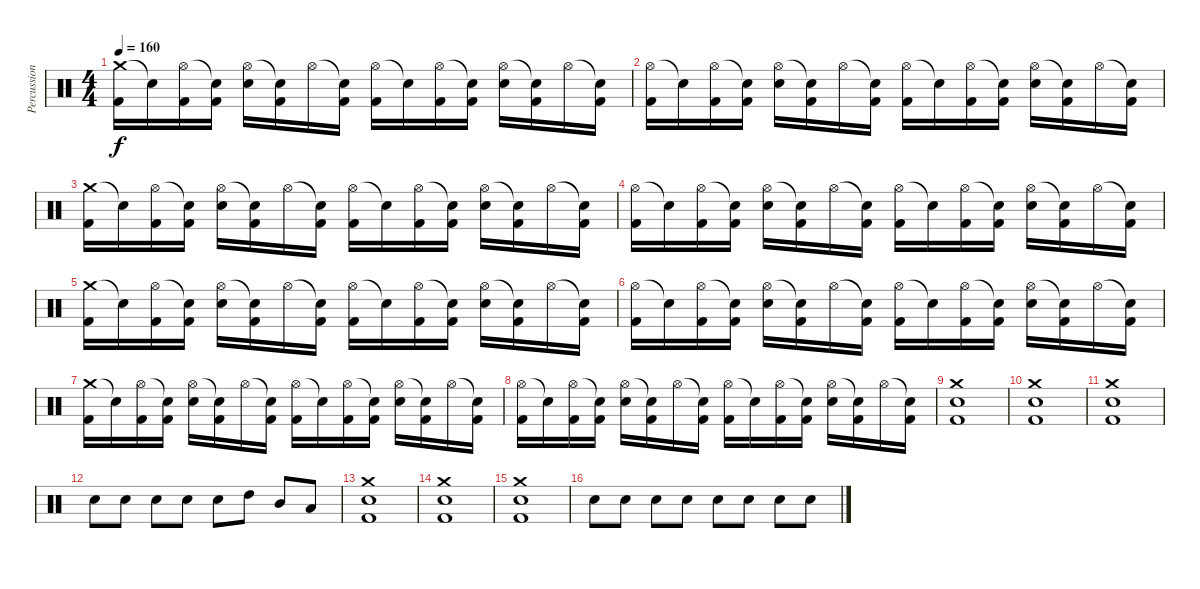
\track ("Percussion" "Percussion") {instrument percussion}
\staff {score}
\articulation defaults
\ts (4 4)
\tempo 160
\clef neutral
\ks c
("Crash medium (hit)" "Kick (hit) 2").16{dy f} "Snare (hit)"{t}.16 ("Hi-Hat (open)" "Kick (hit) 2").16 ("Snare (hit)"{t} "Kick (hit) 2").16 ("Hi-Hat (open)" "Electric Snare (hit)").16 ("Snare (hit)"{t} "Kick (hit) 2").16 "Hi-Hat (open)".16 ("Snare (hit)"{t} "Kick (hit) 2").16 ("Hi-Hat (open)" "Kick (hit) 2").16 "Snare (hit)"{t}.16 ("Hi-Hat (open)" "Kick (hit) 2").16 ("Snare (hit)"{t} "Kick (hit) 2").16 ("Hi-Hat (open)" "Electric Snare (hit)").16 ("Snare (hit)"{t} "Kick (hit) 2").16 "Hi-Hat (open)".16 ("Snare (hit)"{t} "Kick (hit) 2").16 |
("Hi-Hat (open)" "Kick (hit) 2").16 "Snare (hit)"{t}.16 ("Hi-Hat (open)" "Kick (hit) 2").16 ("Snare (hit)"{t} "Kick (hit) 2").16 ("Hi-Hat (open)" "Electric Snare (hit)").16 ("Snare (hit)"{t} "Kick (hit) 2").16 "Hi-Hat (open)".16 ("Snare (hit)"{t} "Kick (hit) 2").16 ("Hi-Hat (open)" "Kick (hit) 2").16 "Snare (hit)"{t}.16 ("Hi-Hat (open)" "Kick (hit) 2").16 ("Snare (hit)"{t} "Kick (hit) 2").16 ("Hi-Hat (open)" "Electric Snare (hit)").16 ("Snare (hit)"{t} "Kick (hit) 2").16 "Hi-Hat (open)".16 ("Snare (hit)"{t} "Kick (hit) 2").16 |
("Crash medium (hit)" "Kick (hit) 2").16 "Snare (hit)"{t}.16 ("Hi-Hat (open)" "Kick (hit) 2").16 ("Snare (hit)"{t} "Kick (hit) 2").16 ("Hi-Hat (open)" "Electric Snare (hit)").16 ("Snare (hit)"{t} "Kick (hit) 2").16 "Hi-Hat (open)".16 ("Snare (hit)"{t} "Kick (hit) 2").16 ("Hi-Hat (open)" "Kick (hit) 2").16 "Snare (hit)"{t}.16 ("Hi-Hat (open)" "Kick (hit) 2").16 ("Snare (hit)"{t} "Kick (hit) 2").16 ("Hi-Hat (open)" "Electric Snare (hit)").16 ("Snare (hit)"{t} "Kick (hit) 2").16 "Hi-Hat (open)".16 ("Snare (hit)"{t} "Kick (hit) 2").16 |
("Hi-Hat (open)" "Kick (hit) 2").16 "Snare (hit)"{t}.16 ("Hi-Hat (open)" "Kick (hit) 2").16 ("Snare (hit)"{t} "Kick (hit) 2").16 ("Hi-Hat (open)" "Electric Snare (hit)").16 ("Snare (hit)"{t} "Kick (hit) 2").16 "Hi-Hat (open)".16 ("Snare (hit)"{t} "Kick (hit) 2").16 ("Hi-Hat (open)" "Kick (hit) 2").16 "Snare (hit)"{t}.16 ("Hi-Hat (open)" "Kick (hit) 2").16 ("Snare (hit)"{t} "Kick (hit) 2").16 ("Hi-Hat (open)" "Electric Snare (hit)").16 ("Snare (hit)"{t} "Kick (hit) 2").16 "Hi-Hat (open)".16 ("Snare (hit)"{t} "Kick (hit) 2").16 |
("Crash medium (hit)" "Kick (hit) 2").16 "Snare (hit)"{t}.16 ("Hi-Hat (open)" "Kick (hit) 2").16 ("Snare (hit)"{t} "Kick (hit) 2").16 ("Hi-Hat (open)" "Electric Snare (hit)").16 ("Snare (hit)"{t} "Kick (hit) 2").16 "Hi-Hat (open)".16 ("Snare (hit)"{t} "Kick (hit) 2").16 ("Hi-Hat (open)" "Kick (hit) 2").16 "Snare (hit)"{t}.16 ("Hi-Hat (open)" "Kick (hit) 2").16 ("Snare (hit)"{t} "Kick (hit) 2").16 ("Hi-Hat (open)" "Electric Snare (hit)").16 ("Snare (hit)"{t} "Kick (hit) 2").16 "Hi-Hat (open)".16 ("Snare (hit)"{t} "Kick (hit) 2").16 |
("Hi-Hat (open)" "Kick (hit) 2").16 "Snare (hit)"{t}.16 ("Hi-Hat (open)" "Kick (hit) 2").16 ("Snare (hit)"{t} "Kick (hit) 2").16 ("Hi-Hat (open)" "Electric Snare (hit)").16 ("Snare (hit)"{t} "Kick (hit) 2").16 "Hi-Hat (open)".16 ("Snare (hit)"{t} "Kick (hit) 2").16 ("Hi-Hat (open)" "Kick (hit) 2").16 "Snare (hit)"{t}.16 ("Hi-Hat (open)" "Kick (hit) 2").16 ("Snare (hit)"{t} "Kick (hit) 2").16 ("Hi-Hat (open)" "Electric Snare (hit)").16 ("Snare (hit)"{t} "Kick (hit) 2").16 "Hi-Hat (open)".16 ("Snare (hit)"{t} "Kick (hit) 2").16 |
("Crash medium (hit)" "Kick (hit) 2").16 "Snare (hit)"{t}.16 ("Hi-Hat (open)" "Kick (hit) 2").16 ("Snare (hit)"{t} "Kick (hit) 2").16 ("Hi-Hat (open)" "Electric Snare (hit)").16 ("Snare (hit)"{t} "Kick (hit) 2").16 "Hi-Hat (open)".16 ("Snare (hit)"{t} "Kick (hit) 2").16 ("Hi-Hat (open)" "Kick (hit) 2").16 "Snare (hit)"{t}.16 ("Hi-Hat (open)" "Kick (hit) 2").16 ("Snare (hit)"{t} "Kick (hit) 2").16 ("Hi-Hat (open)" "Electric Snare (hit)").16 ("Snare (hit)"{t} "Kick (hit) 2").16 "Hi-Hat (open)".16 ("Snare (hit)"{t} "Kick (hit) 2").16 |
("Hi-Hat (open)" "Kick (hit) 2").16 "Snare (hit)"{t}.16 ("Hi-Hat (open)" "Kick (hit) 2").16 ("Snare (hit)"{t} "Kick (hit) 2").16 ("Hi-Hat (open)" "Electric Snare (hit)").16 ("Snare (hit)"{t} "Kick (hit) 2").16 "Hi-Hat (open)".16 ("Snare (hit)"{t} "Kick (hit) 2").16 ("Hi-Hat (open)" "Kick (hit) 2").16 "Snare (hit)"{t}.16 ("Hi-Hat (open)" "Kick (hit) 2").16 ("Snare (hit)"{t} "Kick (hit) 2").16 ("Hi-Hat (open)" "Electric Snare (hit)").16 ("Snare (hit)"{t} "Kick (hit) 2").16 "Hi-Hat (open)".16 ("Snare (hit)"{t} "Kick (hit) 2").16 |
("Crash medium (hit)" "Electric Snare (hit)" "Kick (hit) 2").1 |
("Crash medium (hit)" "Electric Snare (hit)" "Kick (hit) 2").1 |
("Crash medium (hit)" "Electric Snare (hit)" "Kick (hit) 2").1 |
"Electric Snare (hit)".8 "Electric Snare (hit)".8 "Electric Snare (hit)".8 "Electric Snare (hit)".8 "Electric Snare (hit)".8 "High Tom (hit)".8 "Mid Tom (hit)".8 "Low Tom (hit)".8 |
("Crash medium (hit)" "Electric Snare (hit)" "Kick (hit) 2").1 |
("Crash medium (hit)" "Electric Snare (hit)" "Kick (hit) 2").1 |
("Crash medium (hit)" "Electric Snare (hit)" "Kick (hit) 2").1 |
"Electric Snare (hit)".8{volume 5} "Electric Snare (hit)".8{volume 6} "Electric Snare (hit)".8 "Electric Snare (hit)".8{volume 9} "Electric Snare (hit)".8{volume 10} "Electric Snare (hit)".8 "Electric Snare (hit)".8{volume 13} "Electric Snare (hit)".8
